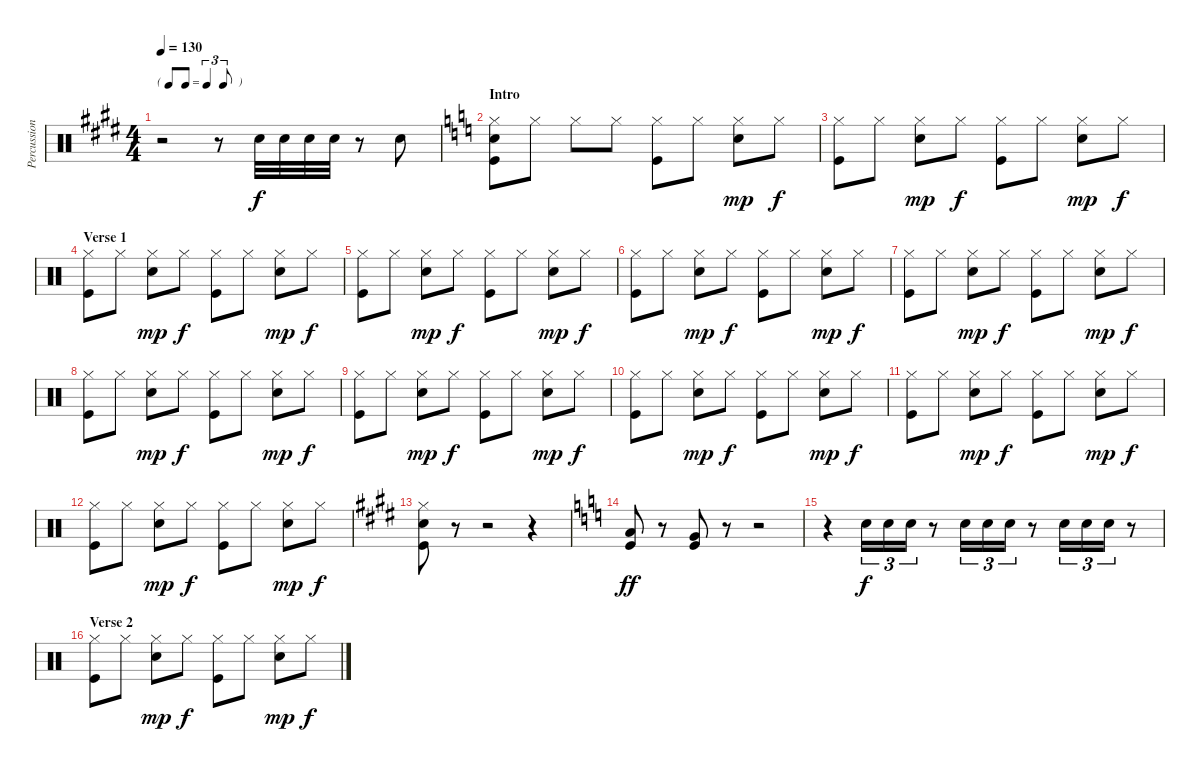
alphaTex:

\track ("Percussion" "Percussion") {instrument percussion}
\staff {score}
\articulation defaults
\ts (4 4)
\tf triplet8th
\tempo 130
\clef neutral
\ks e
r.2{dy f} r.8 "Snare (hit) 2".32 "Snare (hit) 2".32 "Snare (hit) 2".32 "Snare (hit) 2".32 r.8 "Snare (hit) 2".8 |
\section ("" "Intro")
\ks c
("Kick (hit)" "Electric Snare (hit)" "Hi-Hat (closed)").8 "Hi-Hat (closed)".8 "Hi-Hat (closed)".8 "Hi-Hat (closed)".8 ("Kick (hit)" "Hi-Hat (closed)").8 "Hi-Hat (closed)".8 ("Electric Snare (hit)" "Hi-Hat (closed)").8{dy mp} "Hi-Hat (closed)".8{dy f} |
("Kick (hit)" "Hi-Hat (closed)").8 "Hi-Hat (closed)".8 ("Electric Snare (hit)" "Hi-Hat (closed)").8{dy mp} "Hi-Hat (closed)".8{dy f} ("Kick (hit)" "Hi-Hat (closed)").8 "Hi-Hat (closed)".8 ("Electric Snare (hit)" "Hi-Hat (closed)").8{dy mp} "Hi-Hat (closed)".8{dy f} |
\section ("" "Verse 1")
("Kick (hit)" "Hi-Hat (closed)").8 "Hi-Hat (closed)".8 ("Electric Snare (hit)" "Hi-Hat (closed)").8{dy mp} "Hi-Hat (closed)".8{dy f} ("Kick (hit)" "Hi-Hat (closed)").8 "Hi-Hat (closed)".8 ("Electric Snare (hit)" "Hi-Hat (closed)").8{dy mp} "Hi-Hat (closed)".8{dy f} |
("Kick (hit)" "Hi-Hat (closed)").8 "Hi-Hat (closed)".8 ("Electric Snare (hit)" "Hi-Hat (closed)").8{dy mp} "Hi-Hat (closed)".8{dy f} ("Kick (hit)" "Hi-Hat (closed)").8 "Hi-Hat (closed)".8 ("Electric Snare (hit)" "Hi-Hat (closed)").8{dy mp} "Hi-Hat (closed)".8{dy f} |
("Kick (hit)" "Hi-Hat (closed)").8 "Hi-Hat (closed)".8 ("Electric Snare (hit)" "Hi-Hat (closed)").8{dy mp} "Hi-Hat (closed)".8{dy f} ("Kick (hit)" "Hi-Hat (closed)").8 "Hi-Hat (closed)".8 ("Electric Snare (hit)" "Hi-Hat (closed)").8{dy mp} "Hi-Hat (closed)".8{dy f} |
("Kick (hit)" "Hi-Hat (closed)").8 "Hi-Hat (closed)".8 ("Electric Snare (hit)" "Hi-Hat (closed)").8{dy mp} "Hi-Hat (closed)".8{dy f} ("Kick (hit)" "Hi-Hat (closed)").8 "Hi-Hat (closed)".8 ("Electric Snare (hit)" "Hi-Hat (closed)").8{dy mp} "Hi-Hat (closed)".8{dy f} |
("Kick (hit)" "Hi-Hat (closed)").8 "Hi-Hat (closed)".8 ("Electric Snare (hit)" "Hi-Hat (closed)").8{dy mp} "Hi-Hat (closed)".8{dy f} ("Kick (hit)" "Hi-Hat (closed)").8 "Hi-Hat (closed)".8 ("Electric Snare (hit)" "Hi-Hat (closed)").8{dy mp} "Hi-Hat (closed)".8{dy f} |
("Kick (hit)" "Hi-Hat (closed)").8 "Hi-Hat (closed)".8 ("Electric Snare (hit)" "Hi-Hat (closed)").8{dy mp} "Hi-Hat (closed)".8{dy f} ("Kick (hit)" "Hi-Hat (closed)").8 "Hi-Hat (closed)".8 ("Electric Snare (hit)" "Hi-Hat (closed)").8{dy mp} "Hi-Hat (closed)".8{dy f} |
("Kick (hit)" "Hi-Hat (closed)").8 "Hi-Hat (closed)".8 ("Electric Snare (hit)" "Hi-Hat (closed)").8{dy mp} "Hi-Hat (closed)".8{dy f} ("Kick (hit)" "Hi-Hat (closed)").8 "Hi-Hat (closed)".8 ("Electric Snare (hit)" "Hi-Hat (closed)").8{dy mp} "Hi-Hat (closed)".8{dy f} |
("Kick (hit)" "Hi-Hat (closed)").8 "Hi-Hat (closed)".8 ("Electric Snare (hit)" "Hi-Hat (closed)").8{dy mp} "Hi-Hat (closed)".8{dy f} ("Kick (hit)" "Hi-Hat (closed)").8 "Hi-Hat (closed)".8 ("Electric Snare (hit)" "Hi-Hat (closed)").8{dy mp} "Hi-Hat (closed)".8{dy f} |
("Kick (hit)" "Hi-Hat (closed)").8 "Hi-Hat (closed)".8 ("Electric Snare (hit)" "Hi-Hat (closed)").8{dy mp} "Hi-Hat (closed)".8{dy f} ("Kick (hit)" "Hi-Hat (closed)").8 "Hi-Hat (closed)".8 ("Electric Snare (hit)" "Hi-Hat (closed)").8{dy mp} "Hi-Hat (closed)".8{dy f} |
\ks e
("Kick (hit)" "Electric Snare (hit)" "Hi-Hat (closed)").8 r.8 r.2 r.4 |
\ks c
("Kick (hit)" "Low Tom (hit)").8{dy ff} r.8 ("Kick (hit)" "Very Low Tom (hit)").8 r.8 r.2 |
r.4 "Snare (hit) 2".16{tu (3 2) dy f} "Snare (hit) 2".16{tu (3 2)} "Snare (hit) 2".16{tu (3 2)} r.8 "Snare (hit) 2".16{tu (3 2)} "Snare (hit) 2".16{tu (3 2)} "Snare (hit) 2".16{tu (3 2)} r.8 "Snare (hit) 2".16{tu (3 2)} "Snare (hit) 2".16{tu (3 2)} "Snare (hit) 2".16{tu (3 2)} r.8 |
\section ("" "Verse 2")
("Kick (hit)" "Hi-Hat (closed)").8 "Hi-Hat (closed)".8 ("Electric Snare (hit)" "Hi-Hat (closed)").8{dy mp} "Hi-Hat (closed)".8{dy f} ("Kick (hit)" "Hi-Hat (closed)").8 "Hi-Hat (closed)".8 ("Electric Snare (hit)" "Hi-Hat (closed)").8{dy mp} "Hi-Hat (closed)".8{dy f}
